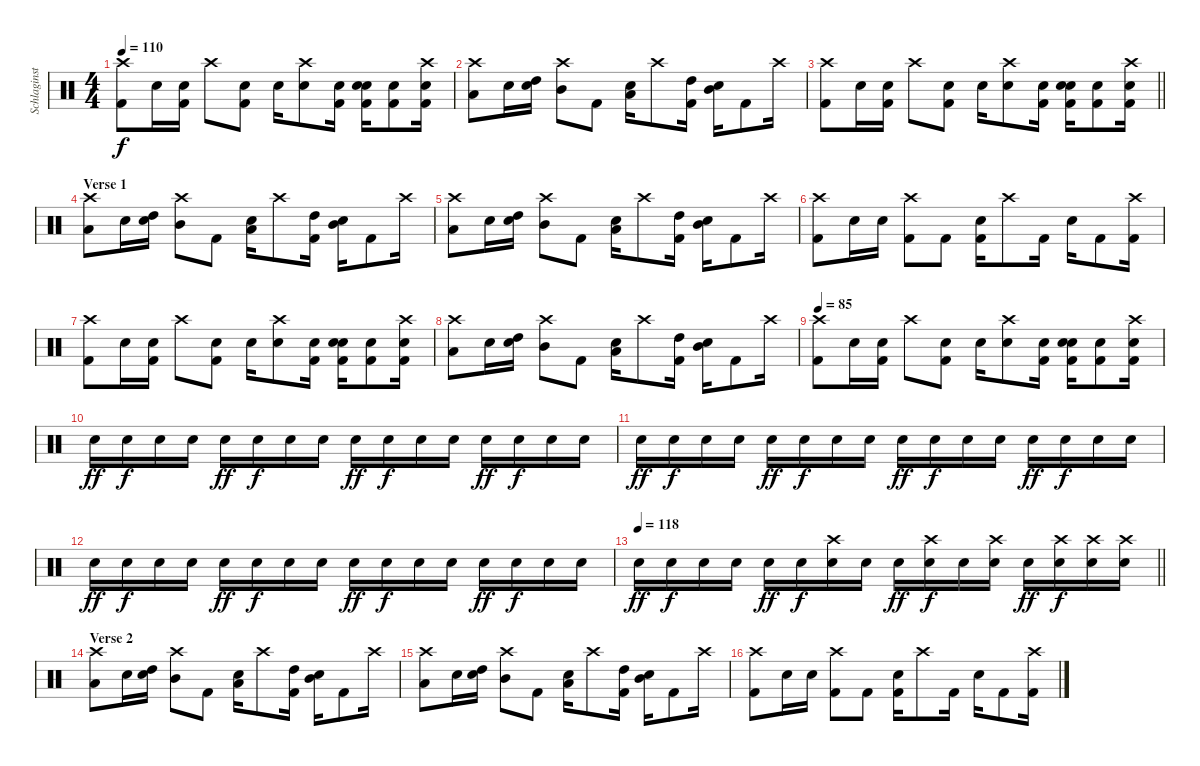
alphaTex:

\track ("Schlaginstrumente - Auswahl" "Schlaginst") {instrument percussion}
\staff {score}
\articulation defaults
\ts (4 4)
\tempo 110
\clef neutral
\ks c
("Crash high (hit)" "Kick (hit) 2").8{dy f} "Electric Snare (hit)".16 ("Electric Snare (hit)" "Kick (hit) 2").16 "Crash high (hit)".8 ("Kick (hit) 2" "Electric Snare (hit)").8 "Electric Snare (hit)".16 ("Crash high (hit)" "Electric Snare (hit)").8 ("Kick (hit) 2" "Electric Snare (hit)").16 ("Snare (hit) 2" "Kick (hit) 2" "Electric Snare (hit)").16 ("Kick (hit) 2" "Electric Snare (hit)").8 ("Crash high (hit)" "Kick (hit) 2" "Electric Snare (hit)").16 |
("Crash high (hit)" "Low Floor Tom (hit)").8 "Electric Snare (hit)".16 ("Electric Snare (hit)" "High Tom (hit)").16 ("Crash high (hit)" "Mid Tom (hit)").8 "Kick (hit) 2".8 ("Electric Snare (hit)" "Low Floor Tom (hit)").16 "Crash high (hit)".8 ("Kick (hit) 2" "High Tom (hit)").16 ("Snare (hit) 2" "Mid Tom (hit)").16 "Kick (hit) 2".8 "Crash high (hit)".16 |
\barLineRight lightlight
("Crash high (hit)" "Kick (hit) 2").8 "Electric Snare (hit)".16 ("Electric Snare (hit)" "Kick (hit) 2").16 "Crash high (hit)".8 ("Kick (hit) 2" "Electric Snare (hit)").8 "Electric Snare (hit)".16 ("Crash high (hit)" "Electric Snare (hit)").8 ("Kick (hit) 2" "Electric Snare (hit)").16 ("Snare (hit) 2" "Kick (hit) 2" "Electric Snare (hit)").16 ("Kick (hit) 2" "Electric Snare (hit)").8 ("Crash high (hit)" "Kick (hit) 2" "Electric Snare (hit)").16 |
\section ("" "Verse 1")
("Crash high (hit)" "Low Floor Tom (hit)").8 "Electric Snare (hit)".16 ("Electric Snare (hit)" "High Tom (hit)").16 ("Crash high (hit)" "Mid Tom (hit)").8 "Kick (hit) 2".8 ("Electric Snare (hit)" "Low Floor Tom (hit)").16 "Crash high (hit)".8 ("Kick (hit) 2" "High Tom (hit)").16 ("Snare (hit) 2" "Mid Tom (hit)").16 "Kick (hit) 2".8 "Crash high (hit)".16 |
("Crash high (hit)" "Low Floor Tom (hit)").8 "Electric Snare (hit)".16 ("Electric Snare (hit)" "High Tom (hit)").16 ("Crash high (hit)" "Mid Tom (hit)").8 "Kick (hit) 2".8 ("Electric Snare (hit)" "Low Floor Tom (hit)").16 "Crash high (hit)".8 ("Kick (hit) 2" "High Tom (hit)").16 ("Snare (hit) 2" "Mid Tom (hit)").16 "Kick (hit) 2".8 "Crash high (hit)".16 |
("Crash high (hit)" "Kick (hit) 2").8 "Electric Snare (hit)".16 "Electric Snare (hit)".16 ("Crash high (hit)" "Kick (hit) 2").8 "Kick (hit) 2".8 ("Electric Snare (hit)" "Kick (hit) 2").16 "Crash high (hit)".8 "Kick (hit) 2".16 "Snare (hit) 2".16 "Kick (hit) 2".8 ("Crash high (hit)" "Kick (hit) 2").16 |
("Crash high (hit)" "Kick (hit) 2").8 "Electric Snare (hit)".16 ("Electric Snare (hit)" "Kick (hit) 2").16 "Crash high (hit)".8 ("Kick (hit) 2" "Electric Snare (hit)").8 "Electric Snare (hit)".16 ("Crash high (hit)" "Electric Snare (hit)").8 ("Kick (hit) 2" "Electric Snare (hit)").16 ("Snare (hit) 2" "Kick (hit) 2" "Electric Snare (hit)").16 ("Kick (hit) 2" "Electric Snare (hit)").8 ("Crash high (hit)" "Kick (hit) 2" "Electric Snare (hit)").16 |
("Crash high (hit)" "Low Floor Tom (hit)").8 "Electric Snare (hit)".16 ("Electric Snare (hit)" "High Tom (hit)").16 ("Crash high (hit)" "Mid Tom (hit)").8 "Kick (hit) 2".8 ("Electric Snare (hit)" "Low Floor Tom (hit)").16 "Crash high (hit)".8 ("Kick (hit) 2" "High Tom (hit)").16 ("Snare (hit) 2" "Mid Tom (hit)").16 "Kick (hit) 2".8 "Crash high (hit)".16 |
\tempo 85
("Crash high (hit)" "Kick (hit) 2").8 "Electric Snare (hit)".16 ("Electric Snare (hit)" "Kick (hit) 2").16 "Crash high (hit)".8 ("Kick (hit) 2" "Electric Snare (hit)").8 "Electric Snare (hit)".16 ("Crash high (hit)" "Electric Snare (hit)").8 ("Kick (hit) 2" "Electric Snare (hit)").16 ("Snare (hit) 2" "Kick (hit) 2" "Electric Snare (hit)").16 ("Kick (hit) 2" "Electric Snare (hit)").8 ("Crash high (hit)" "Kick (hit) 2" "Electric Snare (hit)").16 |
"Snare (hit) 2".16{dy ff volume 6} "Snare (hit) 2".16{dy f} "Snare (hit) 2".16 "Snare (hit) 2".16 "Snare (hit) 2".16{dy ff} "Snare (hit) 2".16{dy f} "Snare (hit) 2".16 "Snare (hit) 2".16 "Snare (hit) 2".16{dy ff} "Snare (hit) 2".16{dy f} "Snare (hit) 2".16 "Snare (hit) 2".16 "Snare (hit) 2".16{dy ff} "Snare (hit) 2".16{dy f} "Snare (hit) 2".16 "Snare (hit) 2".16 |
"Snare (hit) 2".16{dy ff volume 7} "Snare (hit) 2".16{dy f} "Snare (hit) 2".16 "Snare (hit) 2".16 "Snare (hit) 2".16{dy ff} "Snare (hit) 2".16{dy f} "Snare (hit) 2".16 "Snare (hit) 2".16 "Snare (hit) 2".16{dy ff} "Snare (hit) 2".16{dy f} "Snare (hit) 2".16 "Snare (hit) 2".16 "Snare (hit) 2".16{dy ff} "Snare (hit) 2".16{dy f} "Snare (hit) 2".16 "Snare (hit) 2".16 |
"Snare (hit) 2".16{dy ff volume 9} "Snare (hit) 2".16{dy f} "Snare (hit) 2".16 "Snare (hit) 2".16 "Snare (hit) 2".16{dy ff} "Snare (hit) 2".16{dy f} "Snare (hit) 2".16 "Snare (hit) 2".16 "Snare (hit) 2".16{dy ff} "Snare (hit) 2".16{dy f} "Snare (hit) 2".16 "Snare (hit) 2".16 "Snare (hit) 2".16{dy ff} "Snare (hit) 2".16{dy f} "Snare (hit) 2".16 "Snare (hit) 2".16 |
\tempo 118
\barLineRight lightlight "Snare (hit) 2".16{dy ff volume 10} "Snare (hit) 2".16{dy f} "Snare (hit) 2".16 "Snare (hit) 2".16 "Snare (hit) 2".16{dy ff} "Snare (hit) 2".16{dy f}
("Crash high (hit)" "Snare (hit) 2").16 "Snare (hit) 2".16 "Snare (hit) 2".16{dy ff} ("Crash high (hit)" "Snare (hit) 2").16{dy f} "Snare (hit) 2".16 ("Crash high (hit)" "Snare (hit) 2").16 "Snare (hit) 2".16{dy ff} ("Crash high (hit)" "Snare (hit) 2").16{dy f} ("Crash high (hit)" "Snare (hit) 2").16 ("Crash high (hit)" "Snare (hit) 2").16 |
\section ("" "Verse 2")
("Crash high (hit)" "Low Floor Tom (hit)").8 "Electric Snare (hit)".16 ("Electric Snare (hit)" "High Tom (hit)").16 ("Crash high (hit)" "Mid Tom (hit)").8 "Kick (hit) 2".8 ("Electric Snare (hit)" "Low Floor Tom (hit)").16 "Crash high (hit)".8 ("Kick (hit) 2" "High Tom (hit)").16 ("Snare (hit) 2" "Mid Tom (hit)").16 "Kick (hit) 2".8 "Crash high (hit)".16 |
("Crash high (hit)" "Low Floor Tom (hit)").8 "Electric Snare (hit)".16 ("Electric Snare (hit)" "High Tom (hit)").16 ("Crash high (hit)" "Mid Tom (hit)").8 "Kick (hit) 2".8 ("Electric Snare (hit)" "Low Floor Tom (hit)").16 "Crash high (hit)".8 ("Kick (hit) 2" "High Tom (hit)").16 ("Snare (hit) 2" "Mid Tom (hit)").16 "Kick (hit) 2".8 "Crash high (hit)".16 |
("Crash high (hit)" "Kick (hit) 2").8 "Electric Snare (hit)".16 "Electric Snare (hit)".16 ("Crash high (hit)" "Kick (hit) 2").8 "Kick (hit) 2".8 ("Electric Snare (hit)" "Kick (hit) 2").16 "Crash high (hit)".8 "Kick (hit) 2".16 "Snare (hit) 2".16 "Kick (hit) 2".8 ("Crash high (hit)" "Kick (hit) 2").16
